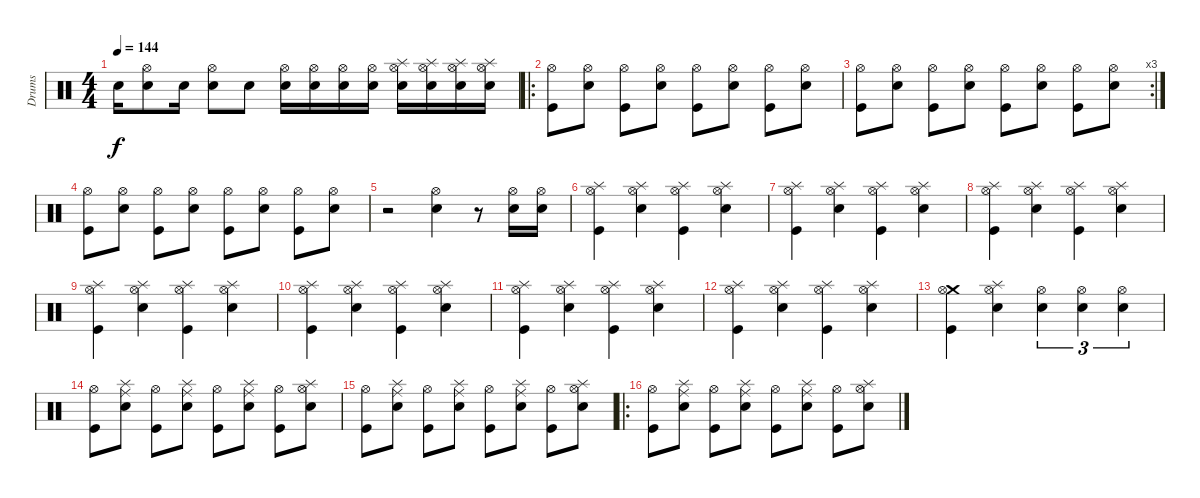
\track ("Drums" "Drums") {instrument percussion}
\staff {score}
\articulation defaults
\ts (4 4)
\tempo 144
\clef neutral
\ks c "Snare (hit) 2".16{dy f}
("Hi-Hat (open)" "Snare (hit) 2").8 "Snare (hit) 2".16 ("Hi-Hat (open)" "Snare (hit) 2").8 "Snare (hit) 2".8 ("Hi-Hat (open)" "Snare (hit) 2").16 ("Hi-Hat (open)" "Snare (hit) 2").16 ("Hi-Hat (open)" "Snare (hit) 2").16 ("Hi-Hat (open)" "Snare (hit) 2").16 ("Hi-Hat (open)" "Splash (hit)" "Snare (hit) 2").16 ("Hi-Hat (open)" "Splash (hit)" "Snare (hit) 2").16 ("Hi-Hat (open)" "Splash (hit)" "Snare (hit) 2").16 ("Hi-Hat (open)" "Splash (hit)" "Snare (hit) 2").16 |
\ro
("Kick (hit)" "Hi-Hat (open)").8 ("Snare (hit) 2" "Hi-Hat (open)").8 ("Kick (hit)" "Hi-Hat (open)").8 ("Snare (hit) 2" "Hi-Hat (open)").8 ("Kick (hit)" "Hi-Hat (open)").8 ("Snare (hit) 2" "Hi-Hat (open)").8 ("Kick (hit)" "Hi-Hat (open)").8 ("Snare (hit) 2" "Hi-Hat (open)").8 |
\rc 3
("Kick (hit)" "Hi-Hat (open)").8 ("Snare (hit) 2" "Hi-Hat (open)").8 ("Kick (hit)" "Hi-Hat (open)").8 ("Snare (hit) 2" "Hi-Hat (open)").8 ("Kick (hit)" "Hi-Hat (open)").8 ("Snare (hit) 2" "Hi-Hat (open)").8 ("Kick (hit)" "Hi-Hat (open)").8 ("Snare (hit) 2" "Hi-Hat (open)").8 |
("Kick (hit)" "Hi-Hat (open)").8 ("Snare (hit) 2" "Hi-Hat (open)").8 ("Kick (hit)" "Hi-Hat (open)").8 ("Snare (hit) 2" "Hi-Hat (open)").8 ("Kick (hit)" "Hi-Hat (open)").8 ("Snare (hit) 2" "Hi-Hat (open)").8 ("Kick (hit)" "Hi-Hat (open)").8 ("Snare (hit) 2" "Hi-Hat (open)").8 |
r.2 ("Snare (hit) 2" "Hi-Hat (open)").4 r.8 ("Snare (hit) 2" "Hi-Hat (open)").16 ("Snare (hit) 2" "Hi-Hat (open)").16 |
("Kick (hit)" "Hi-Hat (open)" "Splash (hit)").4 ("Snare (hit) 2" "Splash (hit)" "Hi-Hat (open)").4 ("Kick (hit)" "Hi-Hat (open)" "Splash (hit)").4 ("Snare (hit) 2" "Splash (hit)" "Hi-Hat (open)").4 |
("Kick (hit)" "Hi-Hat (open)" "Splash (hit)").4 ("Snare (hit) 2" "Splash (hit)" "Hi-Hat (open)").4 ("Kick (hit)" "Hi-Hat (open)" "Splash (hit)").4 ("Snare (hit) 2" "Splash (hit)" "Hi-Hat (open)").4 |
("Kick (hit)" "Hi-Hat (open)" "Splash (hit)").4 ("Snare (hit) 2" "Splash (hit)" "Hi-Hat (open)").4 ("Kick (hit)" "Hi-Hat (open)" "Splash (hit)").4 ("Snare (hit) 2" "Splash (hit)" "Hi-Hat (open)").4 |
("Kick (hit)" "Hi-Hat (open)" "Splash (hit)").4 ("Snare (hit) 2" "Splash (hit)" "Hi-Hat (open)").4 ("Kick (hit)" "Hi-Hat (open)" "Splash (hit)").4 ("Snare (hit) 2" "Splash (hit)" "Hi-Hat (open)").4 |
("Kick (hit)" "Hi-Hat (open)" "Splash (hit)").4 ("Snare (hit) 2" "Splash (hit)" "Hi-Hat (open)").4 ("Kick (hit)" "Hi-Hat (open)" "Splash (hit)").4 ("Snare (hit) 2" "Splash (hit)" "Hi-Hat (open)").4 |
("Kick (hit)" "Hi-Hat (open)" "Splash (hit)").4 ("Snare (hit) 2" "Splash (hit)" "Hi-Hat (open)").4 ("Kick (hit)" "Hi-Hat (open)" "Splash (hit)").4 ("Snare (hit) 2" "Splash (hit)" "Hi-Hat (open)").4 |
("Kick (hit)" "Hi-Hat (open)" "Splash (hit)").4 ("Snare (hit) 2" "Splash (hit)" "Hi-Hat (open)").4 ("Kick (hit)" "Hi-Hat (open)" "Splash (hit)").4 ("Snare (hit) 2" "Splash (hit)" "Hi-Hat (open)").4 |
("Kick (hit)" "Crash medium (hit)" "Hi-Hat (open)").4 ("Snare (hit) 2" "Splash (hit)" "Hi-Hat (open)").4 ("Hi-Hat (open)" "Snare (hit) 2").4{tu (3 2)} ("Hi-Hat (open)" "Snare (hit) 2").4{tu (3 2)} ("Hi-Hat (open)" "Snare (hit) 2").4{tu (3 2)} |
("Kick (hit)" "Hi-Hat (open)").8 ("Snare (hit) 2" "Ride (middle)" "Splash (hit)").8 ("Kick (hit)" "Hi-Hat (open)").8 ("Snare (hit) 2" "Ride (middle)" "Splash (hit)").8 ("Kick (hit)" "Hi-Hat (open)").8 ("Snare (hit) 2" "Ride (middle)" "Splash (hit)").8 ("Kick (hit)" "Hi-Hat (open)").8 ("Snare (hit) 2" "Hi-Hat (open)" "Splash (hit)").8 |
("Kick (hit)" "Hi-Hat (open)").8 ("Snare (hit) 2" "Ride (middle)" "Splash (hit)").8 ("Kick (hit)" "Hi-Hat (open)").8 ("Snare (hit) 2" "Ride (middle)" "Splash (hit)").8 ("Kick (hit)" "Hi-Hat (open)").8 ("Snare (hit) 2" "Ride (middle)" "Splash (hit)").8 ("Kick (hit)" "Hi-Hat (open)").8 ("Snare (hit) 2" "Hi-Hat (open)" "Splash (hit)").8 |
\ro
("Kick (hit)" "Hi-Hat (open)").8 ("Snare (hit) 2" "Ride (middle)" "Splash (hit)").8 ("Kick (hit)" "Hi-Hat (open)").8 ("Snare (hit) 2" "Ride (middle)" "Splash (hit)").8 ("Kick (hit)" "Hi-Hat (open)").8 ("Snare (hit) 2" "Ride (middle)" "Splash (hit)").8 ("Kick (hit)" "Hi-Hat (open)").8 ("Snare (hit) 2" "Hi-Hat (open)" "Splash (hit)").8
